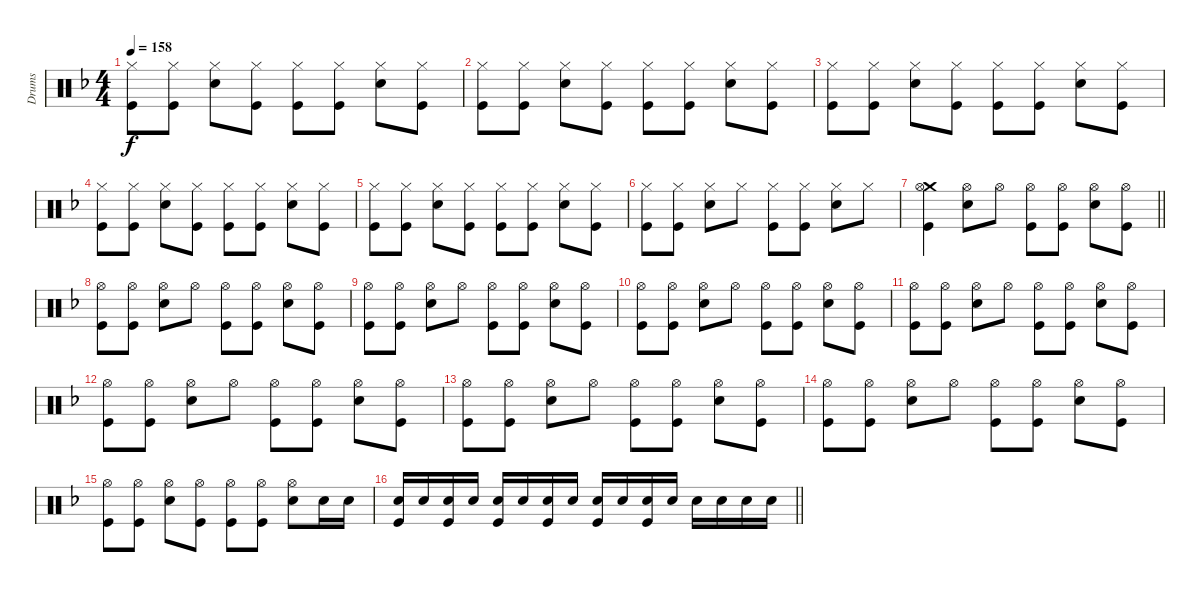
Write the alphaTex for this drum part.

\track ("Drums" "Drums") {instrument percussion}
\staff {score}
\articulation defaults
\ts (4 4)
\tempo 158
\clef neutral
\ks f
("Hi-Hat (closed)" "Kick (hit)").8{dy f} ("Hi-Hat (closed)" "Kick (hit)").8 ("Hi-Hat (closed)" "Snare (hit) 2").8 ("Hi-Hat (closed)" "Kick (hit)").8 ("Hi-Hat (closed)" "Kick (hit)").8 ("Hi-Hat (closed)" "Kick (hit)").8 ("Hi-Hat (closed)" "Snare (hit) 2").8 ("Hi-Hat (closed)" "Kick (hit)").8 |
("Hi-Hat (closed)" "Kick (hit)").8 ("Hi-Hat (closed)" "Kick (hit)").8 ("Hi-Hat (closed)" "Snare (hit) 2").8 ("Hi-Hat (closed)" "Kick (hit)").8 ("Hi-Hat (closed)" "Kick (hit)").8 ("Hi-Hat (closed)" "Kick (hit)").8 ("Hi-Hat (closed)" "Snare (hit) 2").8 ("Hi-Hat (closed)" "Kick (hit)").8 |
("Hi-Hat (closed)" "Kick (hit)").8 ("Hi-Hat (closed)" "Kick (hit)").8 ("Hi-Hat (closed)" "Snare (hit) 2").8 ("Hi-Hat (closed)" "Kick (hit)").8 ("Hi-Hat (closed)" "Kick (hit)").8 ("Hi-Hat (closed)" "Kick (hit)").8 ("Hi-Hat (closed)" "Snare (hit) 2").8 ("Hi-Hat (closed)" "Kick (hit)").8 |
("Hi-Hat (closed)" "Kick (hit)").8 ("Hi-Hat (closed)" "Kick (hit)").8 ("Hi-Hat (closed)" "Snare (hit) 2").8 ("Hi-Hat (closed)" "Kick (hit)").8 ("Hi-Hat (closed)" "Kick (hit)").8 ("Hi-Hat (closed)" "Kick (hit)").8 ("Hi-Hat (closed)" "Snare (hit) 2").8 ("Hi-Hat (closed)" "Kick (hit)").8 |
("Hi-Hat (closed)" "Kick (hit)").8 ("Hi-Hat (closed)" "Kick (hit)").8 ("Hi-Hat (closed)" "Snare (hit) 2").8 ("Hi-Hat (closed)" "Kick (hit)").8 ("Hi-Hat (closed)" "Kick (hit)").8 ("Hi-Hat (closed)" "Kick (hit)").8 ("Hi-Hat (closed)" "Snare (hit) 2").8 ("Hi-Hat (closed)" "Kick (hit)").8 |
("Hi-Hat (closed)" "Kick (hit)").8 ("Hi-Hat (closed)" "Kick (hit)").8 ("Hi-Hat (closed)" "Snare (hit) 2").8 "Hi-Hat (closed)".8 ("Hi-Hat (closed)" "Kick (hit)").8 ("Hi-Hat (closed)" "Kick (hit)").8 ("Hi-Hat (closed)" "Snare (hit) 2").8 "Hi-Hat (closed)".8 |
\barLineRight lightlight
("Crash medium (hit)" "Hi-Hat (open)" "Kick (hit)").4 ("Hi-Hat (open)" "Snare (hit) 2").8 "Hi-Hat (open)".8 ("Hi-Hat (open)" "Kick (hit)").8 ("Hi-Hat (open)" "Kick (hit)").8 ("Hi-Hat (open)" "Snare (hit) 2").8 ("Hi-Hat (open)" "Kick (hit)").8 |
\section ("" "")
("Hi-Hat (open)" "Kick (hit)").8 ("Hi-Hat (open)" "Kick (hit)").8 ("Hi-Hat (open)" "Snare (hit) 2").8 "Hi-Hat (open)".8 ("Hi-Hat (open)" "Kick (hit)").8 ("Hi-Hat (open)" "Kick (hit)").8 ("Hi-Hat (open)" "Snare (hit) 2").8 ("Hi-Hat (open)" "Kick (hit)").8 |
("Hi-Hat (open)" "Kick (hit)").8 ("Hi-Hat (open)" "Kick (hit)").8 ("Hi-Hat (open)" "Snare (hit) 2").8 "Hi-Hat (open)".8 ("Hi-Hat (open)" "Kick (hit)").8 ("Hi-Hat (open)" "Kick (hit)").8 ("Hi-Hat (open)" "Snare (hit) 2").8 ("Hi-Hat (open)" "Kick (hit)").8 |
("Hi-Hat (open)" "Kick (hit)").8 ("Hi-Hat (open)" "Kick (hit)").8 ("Hi-Hat (open)" "Snare (hit) 2").8 "Hi-Hat (open)".8 ("Hi-Hat (open)" "Kick (hit)").8 ("Hi-Hat (open)" "Kick (hit)").8 ("Hi-Hat (open)" "Snare (hit) 2").8 ("Hi-Hat (open)" "Kick (hit)").8 |
("Hi-Hat (open)" "Kick (hit)").8 ("Hi-Hat (open)" "Kick (hit)").8 ("Hi-Hat (open)" "Snare (hit) 2").8 "Hi-Hat (open)".8 ("Hi-Hat (open)" "Kick (hit)").8 ("Hi-Hat (open)" "Kick (hit)").8 ("Hi-Hat (open)" "Snare (hit) 2").8 ("Hi-Hat (open)" "Kick (hit)").8 |
("Hi-Hat (open)" "Kick (hit)").8 ("Hi-Hat (open)" "Kick (hit)").8 ("Hi-Hat (open)" "Snare (hit) 2").8 "Hi-Hat (open)".8 ("Hi-Hat (open)" "Kick (hit)").8 ("Hi-Hat (open)" "Kick (hit)").8 ("Hi-Hat (open)" "Snare (hit) 2").8 ("Hi-Hat (open)" "Kick (hit)").8 |
("Hi-Hat (open)" "Kick (hit)").8 ("Hi-Hat (open)" "Kick (hit)").8 ("Hi-Hat (open)" "Snare (hit) 2").8 "Hi-Hat (open)".8 ("Hi-Hat (open)" "Kick (hit)").8 ("Hi-Hat (open)" "Kick (hit)").8 ("Hi-Hat (open)" "Snare (hit) 2").8 ("Hi-Hat (open)" "Kick (hit)").8 |
("Hi-Hat (open)" "Kick (hit)").8 ("Hi-Hat (open)" "Kick (hit)").8 ("Hi-Hat (open)" "Snare (hit) 2").8 "Hi-Hat (open)".8 ("Hi-Hat (open)" "Kick (hit)").8 ("Hi-Hat (open)" "Kick (hit)").8 ("Hi-Hat (open)" "Snare (hit) 2").8 ("Hi-Hat (open)" "Kick (hit)").8 |
("Hi-Hat (open)" "Kick (hit)").8 ("Hi-Hat (open)" "Kick (hit)").8 ("Hi-Hat (open)" "Snare (hit) 2").8 ("Hi-Hat (open)" "Kick (hit)").8 ("Hi-Hat (open)" "Kick (hit)").8 ("Hi-Hat (open)" "Kick (hit)").8 ("Hi-Hat (open)" "Snare (hit) 2").8 "Snare (hit) 2".16 "Snare (hit) 2".16 |
\barLineRight lightlight
("Snare (hit) 2" "Kick (hit)").16 "Snare (hit) 2".16 ("Snare (hit) 2" "Kick (hit)").16 "Snare (hit) 2".16 ("Snare (hit) 2" "Kick (hit)").16 "Snare (hit) 2".16 ("Snare (hit) 2" "Kick (hit)").16 "Snare (hit) 2".16 ("Snare (hit) 2" "Kick (hit)").16 "Snare (hit) 2".16 ("Snare (hit) 2" "Kick (hit)").16 "Snare (hit) 2".16 "Snare (hit) 2".16 "Snare (hit) 2".16 "Snare (hit) 2".16 "Snare (hit) 2".16
